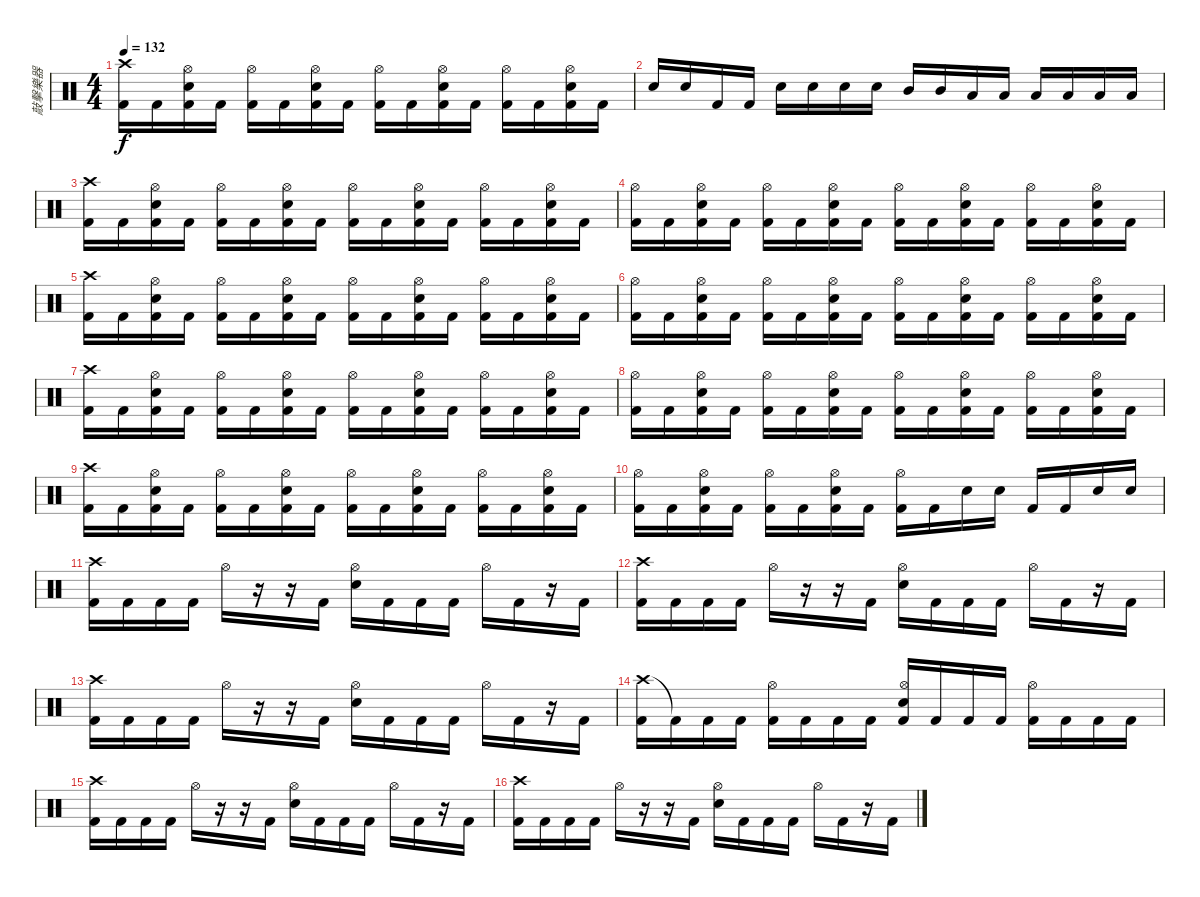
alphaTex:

\track ("敲擊樂器" "敲擊樂器") {instrument percussion}
\staff {score}
\articulation defaults
\ts (4 4)
\tempo 132
\clef neutral
\ks c
("Crash high (hit)" "Kick (hit) 2").16{dy f} "Kick (hit) 2".16 ("Hi-Hat (open)" "Electric Snare (hit)" "Kick (hit) 2").16 "Kick (hit) 2".16 ("Hi-Hat (open)" "Kick (hit) 2").16 "Kick (hit) 2".16 ("Hi-Hat (open)" "Electric Snare (hit)" "Kick (hit) 2").16 "Kick (hit) 2".16 ("Hi-Hat (open)" "Kick (hit) 2").16 "Kick (hit) 2".16 ("Hi-Hat (open)" "Electric Snare (hit)" "Kick (hit) 2").16 "Kick (hit) 2".16 ("Hi-Hat (open)" "Kick (hit) 2").16 "Kick (hit) 2".16 ("Hi-Hat (open)" "Electric Snare (hit)" "Kick (hit) 2").16 "Kick (hit) 2".16 |
"Electric Snare (hit)".16 "Electric Snare (hit)".16 "Kick (hit) 2".16 "Kick (hit) 2".16 "Electric Snare (hit)".16 "Electric Snare (hit)".16 "Electric Snare (hit)".16 "Electric Snare (hit)".16 "Mid Tom (hit)".16 "Mid Tom (hit)".16 "Low Tom (hit)".16 "Low Tom (hit)".16 "Low Tom (hit)".16 "Low Tom (hit)".16 "Low Tom (hit)".16 "Low Tom (hit)".16 |
("Crash high (hit)" "Kick (hit) 2").16 "Kick (hit) 2".16 ("Hi-Hat (open)" "Electric Snare (hit)" "Kick (hit) 2").16 "Kick (hit) 2".16 ("Hi-Hat (open)" "Kick (hit) 2").16 "Kick (hit) 2".16 ("Hi-Hat (open)" "Electric Snare (hit)" "Kick (hit) 2").16 "Kick (hit) 2".16 ("Hi-Hat (open)" "Kick (hit) 2").16 "Kick (hit) 2".16 ("Hi-Hat (open)" "Electric Snare (hit)" "Kick (hit) 2").16 "Kick (hit) 2".16 ("Hi-Hat (open)" "Kick (hit) 2").16 "Kick (hit) 2".16 ("Hi-Hat (open)" "Electric Snare (hit)" "Kick (hit) 2").16 "Kick (hit) 2".16 |
("Hi-Hat (open)" "Kick (hit) 2").16 "Kick (hit) 2".16 ("Hi-Hat (open)" "Electric Snare (hit)" "Kick (hit) 2").16 "Kick (hit) 2".16 ("Hi-Hat (open)" "Kick (hit) 2").16 "Kick (hit) 2".16 ("Hi-Hat (open)" "Electric Snare (hit)" "Kick (hit) 2").16 "Kick (hit) 2".16 ("Hi-Hat (open)" "Kick (hit) 2").16 "Kick (hit) 2".16 ("Hi-Hat (open)" "Electric Snare (hit)" "Kick (hit) 2").16 "Kick (hit) 2".16 ("Hi-Hat (open)" "Kick (hit) 2").16 "Kick (hit) 2".16 ("Hi-Hat (open)" "Electric Snare (hit)" "Kick (hit) 2").16 "Kick (hit) 2".16 |
("Crash high (hit)" "Kick (hit) 2").16 "Kick (hit) 2".16 ("Hi-Hat (open)" "Electric Snare (hit)" "Kick (hit) 2").16 "Kick (hit) 2".16 ("Hi-Hat (open)" "Kick (hit) 2").16 "Kick (hit) 2".16 ("Hi-Hat (open)" "Electric Snare (hit)" "Kick (hit) 2").16 "Kick (hit) 2".16 ("Hi-Hat (open)" "Kick (hit) 2").16 "Kick (hit) 2".16 ("Hi-Hat (open)" "Electric Snare (hit)" "Kick (hit) 2").16 "Kick (hit) 2".16 ("Hi-Hat (open)" "Kick (hit) 2").16 "Kick (hit) 2".16 ("Hi-Hat (open)" "Electric Snare (hit)" "Kick (hit) 2").16 "Kick (hit) 2".16 |
("Hi-Hat (open)" "Kick (hit) 2").16 "Kick (hit) 2".16 ("Hi-Hat (open)" "Electric Snare (hit)" "Kick (hit) 2").16 "Kick (hit) 2".16 ("Hi-Hat (open)" "Kick (hit) 2").16 "Kick (hit) 2".16 ("Hi-Hat (open)" "Electric Snare (hit)" "Kick (hit) 2").16 "Kick (hit) 2".16 ("Hi-Hat (open)" "Kick (hit) 2").16 "Kick (hit) 2".16 ("Hi-Hat (open)" "Electric Snare (hit)" "Kick (hit) 2").16 "Kick (hit) 2".16 ("Hi-Hat (open)" "Kick (hit) 2").16 "Kick (hit) 2".16 ("Hi-Hat (open)" "Electric Snare (hit)" "Kick (hit) 2").16 "Kick (hit) 2".16 |
("Crash high (hit)" "Kick (hit) 2").16 "Kick (hit) 2".16 ("Hi-Hat (open)" "Electric Snare (hit)" "Kick (hit) 2").16 "Kick (hit) 2".16 ("Hi-Hat (open)" "Kick (hit) 2").16 "Kick (hit) 2".16 ("Hi-Hat (open)" "Electric Snare (hit)" "Kick (hit) 2").16 "Kick (hit) 2".16 ("Hi-Hat (open)" "Kick (hit) 2").16 "Kick (hit) 2".16 ("Hi-Hat (open)" "Electric Snare (hit)" "Kick (hit) 2").16 "Kick (hit) 2".16 ("Hi-Hat (open)" "Kick (hit) 2").16 "Kick (hit) 2".16 ("Hi-Hat (open)" "Electric Snare (hit)" "Kick (hit) 2").16 "Kick (hit) 2".16 |
("Hi-Hat (open)" "Kick (hit) 2").16 "Kick (hit) 2".16 ("Hi-Hat (open)" "Electric Snare (hit)" "Kick (hit) 2").16 "Kick (hit) 2".16 ("Hi-Hat (open)" "Kick (hit) 2").16 "Kick (hit) 2".16 ("Hi-Hat (open)" "Electric Snare (hit)" "Kick (hit) 2").16 "Kick (hit) 2".16 ("Hi-Hat (open)" "Kick (hit) 2").16 "Kick (hit) 2".16 ("Hi-Hat (open)" "Electric Snare (hit)" "Kick (hit) 2").16 "Kick (hit) 2".16 ("Hi-Hat (open)" "Kick (hit) 2").16 "Kick (hit) 2".16 ("Hi-Hat (open)" "Electric Snare (hit)" "Kick (hit) 2").16 "Kick (hit) 2".16 |
("Crash high (hit)" "Kick (hit) 2").16 "Kick (hit) 2".16 ("Hi-Hat (open)" "Electric Snare (hit)" "Kick (hit) 2").16 "Kick (hit) 2".16 ("Hi-Hat (open)" "Kick (hit) 2").16 "Kick (hit) 2".16 ("Hi-Hat (open)" "Electric Snare (hit)" "Kick (hit) 2").16 "Kick (hit) 2".16 ("Hi-Hat (open)" "Kick (hit) 2").16 "Kick (hit) 2".16 ("Hi-Hat (open)" "Electric Snare (hit)" "Kick (hit) 2").16 "Kick (hit) 2".16 ("Hi-Hat (open)" "Kick (hit) 2").16 "Kick (hit) 2".16 ("Hi-Hat (open)" "Electric Snare (hit)" "Kick (hit) 2").16 "Kick (hit) 2".16 |
("Hi-Hat (open)" "Kick (hit) 2").16 "Kick (hit) 2".16 ("Hi-Hat (open)" "Electric Snare (hit)" "Kick (hit) 2").16 "Kick (hit) 2".16 ("Hi-Hat (open)" "Kick (hit) 2").16 "Kick (hit) 2".16 ("Hi-Hat (open)" "Electric Snare (hit)" "Kick (hit) 2").16 "Kick (hit) 2".16 ("Hi-Hat (open)" "Kick (hit) 2").16 "Kick (hit) 2".16 "Electric Snare (hit)".16 "Electric Snare (hit)".16 "Kick (hit) 2".16 "Kick (hit) 2".16 "Electric Snare (hit)".16 "Electric Snare (hit)".16 |
("Crash high (hit)" "Kick (hit) 2").16 "Kick (hit) 2".16 "Kick (hit) 2".16 "Kick (hit) 2".16 "Hi-Hat (open)".16 r.16 r.16 "Kick (hit) 2".16 ("Hi-Hat (open)" "Electric Snare (hit)").16 "Kick (hit) 2".16 "Kick (hit) 2".16 "Kick (hit) 2".16 "Hi-Hat (open)".16 "Kick (hit) 2".16 r.16 "Kick (hit) 2".16 |
("Crash high (hit)" "Kick (hit) 2").16 "Kick (hit) 2".16 "Kick (hit) 2".16 "Kick (hit) 2".16 "Hi-Hat (open)".16 r.16 r.16 "Kick (hit) 2".16 ("Hi-Hat (open)" "Electric Snare (hit)").16 "Kick (hit) 2".16 "Kick (hit) 2".16 "Kick (hit) 2".16 "Hi-Hat (open)".16 "Kick (hit) 2".16 r.16 "Kick (hit) 2".16 |
("Crash high (hit)" "Kick (hit) 2").16 "Kick (hit) 2".16 "Kick (hit) 2".16 "Kick (hit) 2".16 "Hi-Hat (open)".16 r.16 r.16 "Kick (hit) 2".16 ("Hi-Hat (open)" "Electric Snare (hit)").16 "Kick (hit) 2".16 "Kick (hit) 2".16 "Kick (hit) 2".16 "Hi-Hat (open)".16 "Kick (hit) 2".16 r.16 "Kick (hit) 2".16 |
("Crash high (hit)" "Kick (hit) 2").16 "Kick (hit) 2"{t}.16 "Kick (hit) 2".16 "Kick (hit) 2".16 ("Hi-Hat (open)" "Kick (hit) 2").16 "Kick (hit) 2".16 "Kick (hit) 2".16 "Kick (hit) 2".16 ("Hi-Hat (open)" "Electric Snare (hit)" "Kick (hit) 2").16 "Kick (hit) 2".16 "Kick (hit) 2".16 "Kick (hit) 2".16 ("Hi-Hat (open)" "Kick (hit) 2").16 "Kick (hit) 2".16 "Kick (hit) 2".16 "Kick (hit) 2".16 |
("Crash high (hit)" "Kick (hit) 2").16 "Kick (hit) 2".16 "Kick (hit) 2".16 "Kick (hit) 2".16 "Hi-Hat (open)".16 r.16 r.16 "Kick (hit) 2".16 ("Hi-Hat (open)" "Electric Snare (hit)").16 "Kick (hit) 2".16 "Kick (hit) 2".16 "Kick (hit) 2".16 "Hi-Hat (open)".16 "Kick (hit) 2".16 r.16 "Kick (hit) 2".16 |
("Crash high (hit)" "Kick (hit) 2").16 "Kick (hit) 2".16 "Kick (hit) 2".16 "Kick (hit) 2".16 "Hi-Hat (open)".16 r.16 r.16 "Kick (hit) 2".16 ("Hi-Hat (open)" "Electric Snare (hit)").16 "Kick (hit) 2".16 "Kick (hit) 2".16 "Kick (hit) 2".16 "Hi-Hat (open)".16 "Kick (hit) 2".16 r.16 "Kick (hit) 2".16
